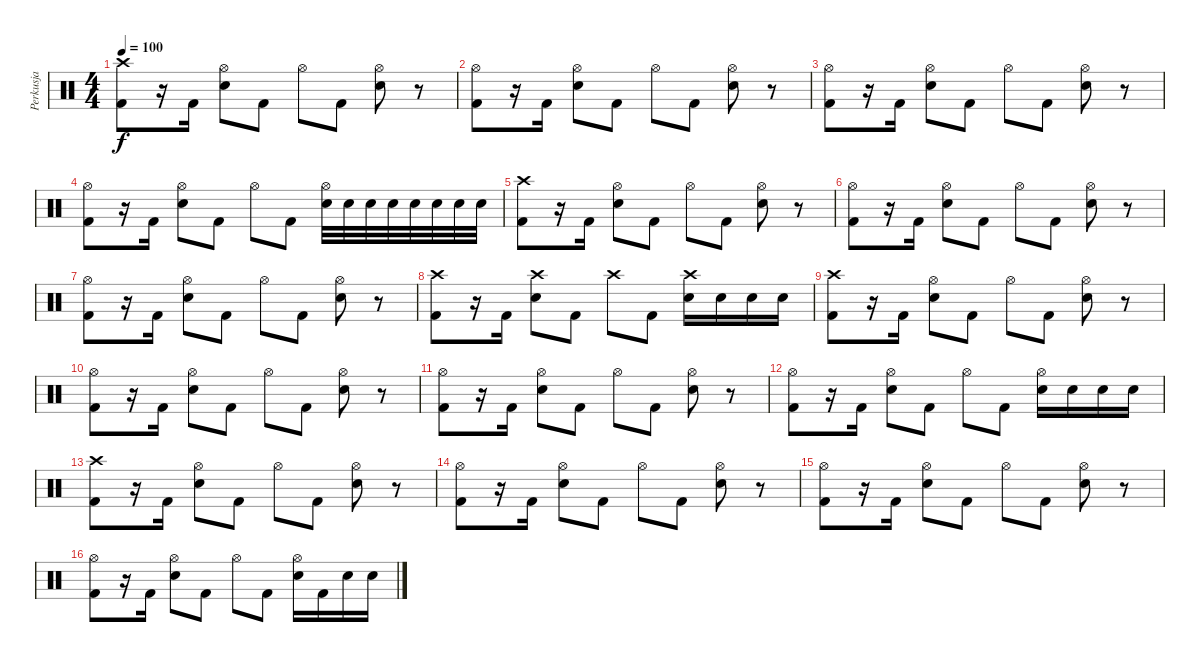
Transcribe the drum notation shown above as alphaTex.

\track ("Perkusja" "Perkusja") {instrument percussion}
\staff {score}
\articulation defaults
\ts (4 4)
\tempo 100
\clef neutral
\ks c
("Crash high (hit)" "Kick (hit) 2").8{dy f} r.16 "Kick (hit) 2".16 ("Hi-Hat (open)" "Electric Snare (hit)").8 "Kick (hit) 2".8 "Hi-Hat (open)".8 "Kick (hit) 2".8 ("Hi-Hat (open)" "Electric Snare (hit)").8 r.8 |
("Hi-Hat (open)" "Kick (hit) 2").8 r.16 "Kick (hit) 2".16 ("Hi-Hat (open)" "Electric Snare (hit)").8 "Kick (hit) 2".8 "Hi-Hat (open)".8 "Kick (hit) 2".8 ("Hi-Hat (open)" "Electric Snare (hit)").8 r.8 |
("Hi-Hat (open)" "Kick (hit) 2").8 r.16 "Kick (hit) 2".16 ("Hi-Hat (open)" "Electric Snare (hit)").8 "Kick (hit) 2".8 "Hi-Hat (open)".8 "Kick (hit) 2".8 ("Hi-Hat (open)" "Electric Snare (hit)").8 r.8 |
("Hi-Hat (open)" "Kick (hit) 2").8 r.16 "Kick (hit) 2".16 ("Hi-Hat (open)" "Electric Snare (hit)").8 "Kick (hit) 2".8 "Hi-Hat (open)".8 "Kick (hit) 2".8 ("Hi-Hat (open)" "Electric Snare (hit)").32 "Electric Snare (hit)".32 "Electric Snare (hit)".32 "Electric Snare (hit)".32 "Electric Snare (hit)".32 "Electric Snare (hit)".32 "Electric Snare (hit)".32 "Electric Snare (hit)".32 |
("Crash high (hit)" "Kick (hit) 2").8 r.16 "Kick (hit) 2".16 ("Hi-Hat (open)" "Electric Snare (hit)").8 "Kick (hit) 2".8 "Hi-Hat (open)".8 "Kick (hit) 2".8 ("Hi-Hat (open)" "Electric Snare (hit)").8 r.8 |
("Hi-Hat (open)" "Kick (hit) 2").8 r.16 "Kick (hit) 2".16 ("Hi-Hat (open)" "Electric Snare (hit)").8 "Kick (hit) 2".8 "Hi-Hat (open)".8 "Kick (hit) 2".8 ("Hi-Hat (open)" "Electric Snare (hit)").8 r.8 |
("Hi-Hat (open)" "Kick (hit) 2").8 r.16 "Kick (hit) 2".16 ("Hi-Hat (open)" "Electric Snare (hit)").8 "Kick (hit) 2".8 "Hi-Hat (open)".8 "Kick (hit) 2".8 ("Hi-Hat (open)" "Electric Snare (hit)").8 r.8 |
("Crash high (hit)" "Kick (hit) 2").8 r.16 "Kick (hit) 2".16 ("Crash high (hit)" "Electric Snare (hit)").8 "Kick (hit) 2".8 "Crash high (hit)".8 "Kick (hit) 2".8 ("Crash high (hit)" "Electric Snare (hit)").16 "Electric Snare (hit)".16 "Electric Snare (hit)".16 "Electric Snare (hit)".16 |
("Crash high (hit)" "Kick (hit) 2").8 r.16 "Kick (hit) 2".16 ("Hi-Hat (open)" "Electric Snare (hit)").8 "Kick (hit) 2".8 "Hi-Hat (open)".8 "Kick (hit) 2".8 ("Hi-Hat (open)" "Electric Snare (hit)").8 r.8 |
("Hi-Hat (open)" "Kick (hit) 2").8 r.16 "Kick (hit) 2".16 ("Hi-Hat (open)" "Electric Snare (hit)").8 "Kick (hit) 2".8 "Hi-Hat (open)".8 "Kick (hit) 2".8 ("Hi-Hat (open)" "Electric Snare (hit)").8 r.8 |
("Hi-Hat (open)" "Kick (hit) 2").8 r.16 "Kick (hit) 2".16 ("Hi-Hat (open)" "Electric Snare (hit)").8 "Kick (hit) 2".8 "Hi-Hat (open)".8 "Kick (hit) 2".8 ("Hi-Hat (open)" "Electric Snare (hit)").8 r.8 |
("Hi-Hat (open)" "Kick (hit) 2").8 r.16 "Kick (hit) 2".16 ("Hi-Hat (open)" "Electric Snare (hit)").8 "Kick (hit) 2".8 "Hi-Hat (open)".8 "Kick (hit) 2".8 ("Hi-Hat (open)" "Electric Snare (hit)").16 "Electric Snare (hit)".16 "Electric Snare (hit)".16 "Electric Snare (hit)".16 |
("Crash high (hit)" "Kick (hit) 2").8 r.16 "Kick (hit) 2".16 ("Hi-Hat (open)" "Electric Snare (hit)").8 "Kick (hit) 2".8 "Hi-Hat (open)".8 "Kick (hit) 2".8 ("Hi-Hat (open)" "Electric Snare (hit)").8 r.8 |
("Hi-Hat (open)" "Kick (hit) 2").8 r.16 "Kick (hit) 2".16 ("Hi-Hat (open)" "Electric Snare (hit)").8 "Kick (hit) 2".8 "Hi-Hat (open)".8 "Kick (hit) 2".8 ("Hi-Hat (open)" "Electric Snare (hit)").8 r.8 |
("Hi-Hat (open)" "Kick (hit) 2").8 r.16 "Kick (hit) 2".16 ("Hi-Hat (open)" "Electric Snare (hit)").8 "Kick (hit) 2".8 "Hi-Hat (open)".8 "Kick (hit) 2".8 ("Hi-Hat (open)" "Electric Snare (hit)").8 r.8 |
("Hi-Hat (open)" "Kick (hit) 2").8 r.16 "Kick (hit) 2".16 ("Hi-Hat (open)" "Electric Snare (hit)").8 "Kick (hit) 2".8 "Hi-Hat (open)".8 "Kick (hit) 2".8 ("Hi-Hat (open)" "Electric Snare (hit)").16 "Kick (hit) 2".16 "Electric Snare (hit)".16 "Electric Snare (hit)".16
